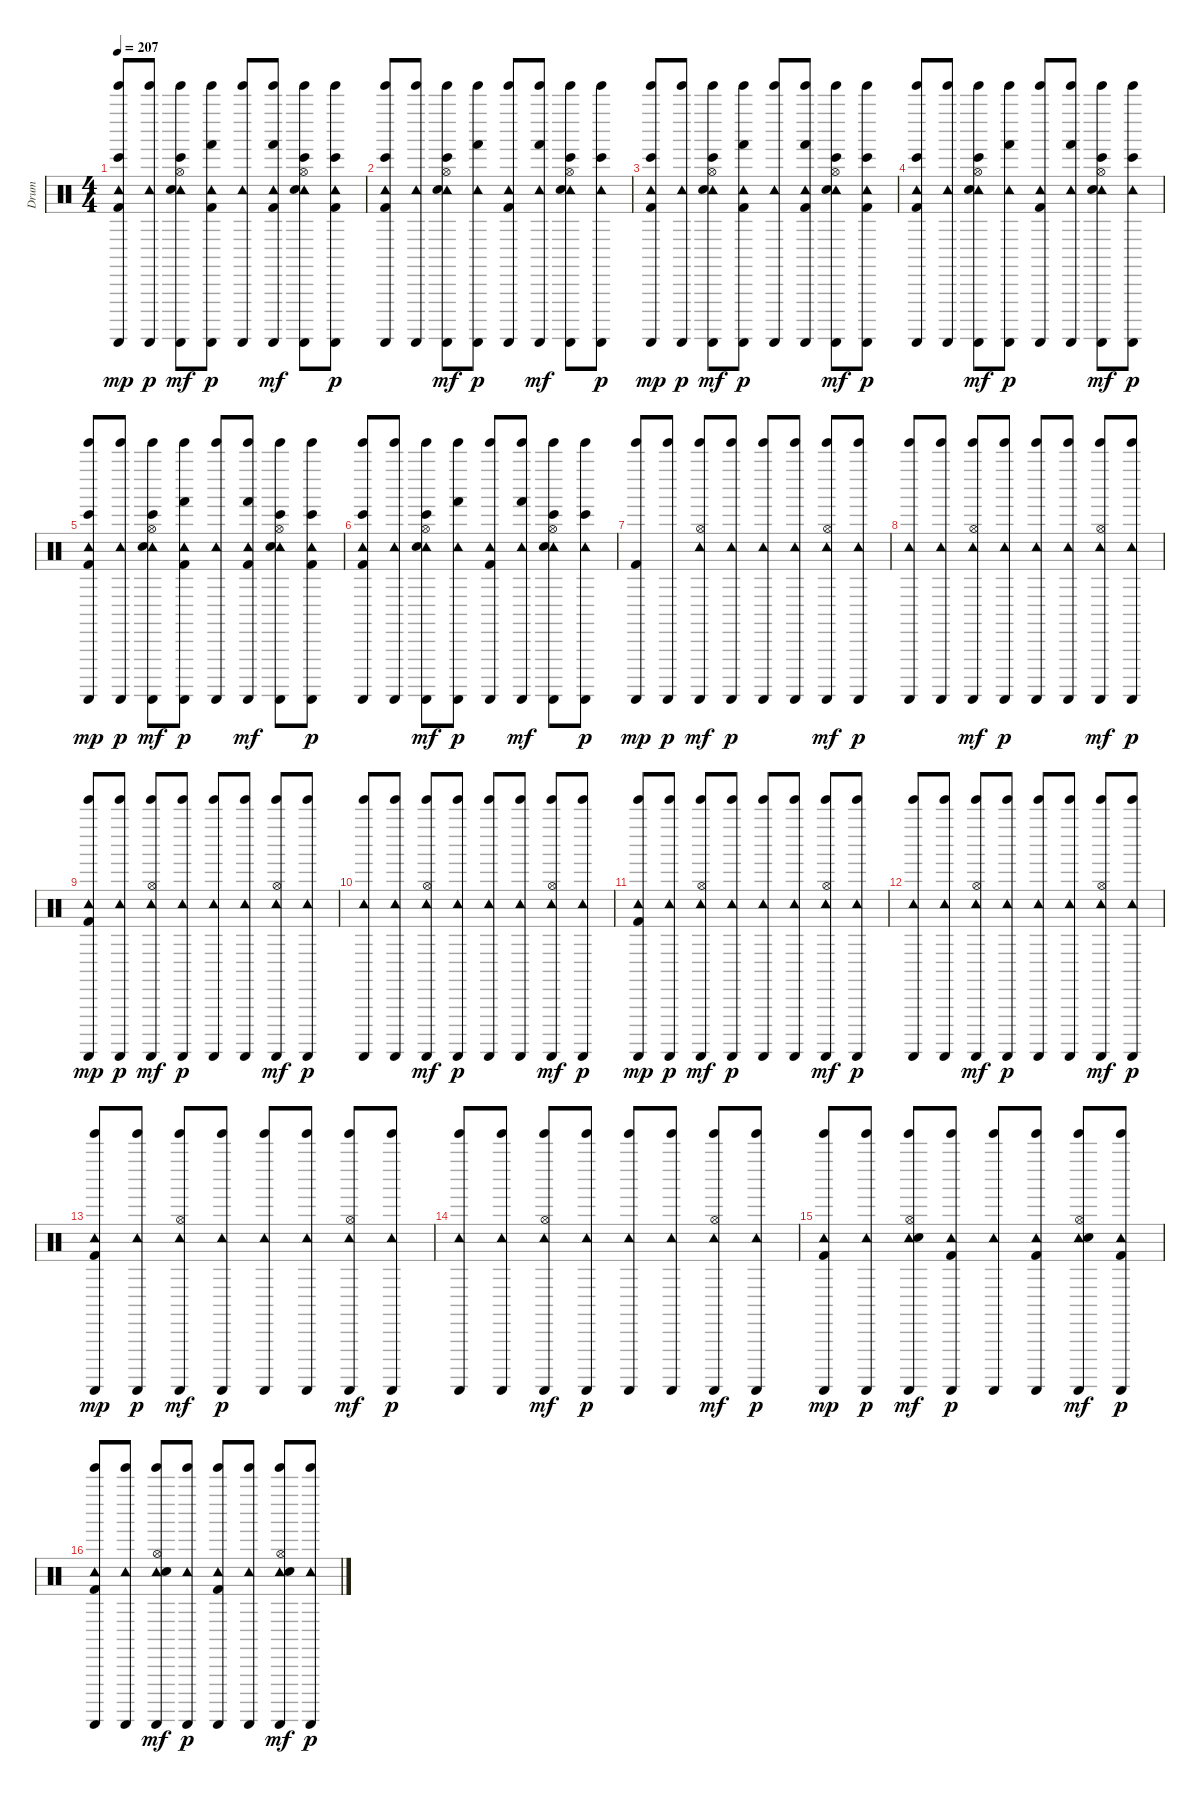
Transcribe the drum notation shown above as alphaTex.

\track ("Drum" "Drum") {instrument percussion}
\staff {score}
\articulation defaults
\ts (4 4)
\tempo 207
\clef neutral
\ks c
("Tambourine (hit)" "Kick (hit) 2" "Tinkle Bell (hit)" "Guiro (scrap-return)" "Bongo High (hit)").8{dy mp} ("Tambourine (hit)" "Tinkle Bell (hit)" "Guiro (scrap-return)").8{dy p} ("Tambourine (hit)" "Hi-Hat (open)" "Snare (hit) 2" "Tinkle Bell (hit)" "Guiro (scrap-return)" "Bongo High (hit)").8{dy mf} ("Tambourine (hit)" "Kick (hit) 2" "Tinkle Bell (hit)" "Guiro (scrap-return)" "Hand (hit)").8{dy p} ("Tambourine (hit)" "Tinkle Bell (hit)" "Guiro (scrap-return)").8 ("Tambourine (hit)" "Kick (hit) 2" "Tinkle Bell (hit)" "Guiro (scrap-return)" "Hand (hit)").8{dy mf} ("Tambourine (hit)" "Hi-Hat (open)" "Snare (hit) 2" "Tinkle Bell (hit)" "Guiro (scrap-return)" "Bongo High (hit)").8 ("Tambourine (hit)" "Kick (hit) 2" "Tinkle Bell (hit)" "Guiro (scrap-return)" "Bongo High (hit)").8{dy p} |
("Tambourine (hit)" "Kick (hit) 2" "Tinkle Bell (hit)" "Guiro (scrap-return)" "Bongo High (hit)").8 ("Tambourine (hit)" "Tinkle Bell (hit)" "Guiro (scrap-return)").8 ("Tambourine (hit)" "Hi-Hat (open)" "Snare (hit) 2" "Tinkle Bell (hit)" "Guiro (scrap-return)" "Bongo High (hit)").8{dy mf} ("Tambourine (hit)" "Tinkle Bell (hit)" "Guiro (scrap-return)" "Hand (hit)").8{dy p} ("Tambourine (hit)" "Kick (hit) 2" "Tinkle Bell (hit)" "Guiro (scrap-return)").8 ("Tambourine (hit)" "Tinkle Bell (hit)" "Guiro (scrap-return)" "Hand (hit)").8{dy mf} ("Tambourine (hit)" "Hi-Hat (open)" "Snare (hit) 2" "Tinkle Bell (hit)" "Guiro (scrap-return)" "Bongo High (hit)").8 ("Tambourine (hit)" "Tinkle Bell (hit)" "Guiro (scrap-return)" "Bongo High (hit)").8{dy p} |
("Tambourine (hit)" "Kick (hit) 2" "Bongo High (hit)" "Tinkle Bell (hit)" "Guiro (scrap-return)").8{dy mp} ("Tambourine (hit)" "Tinkle Bell (hit)" "Guiro (scrap-return)").8{dy p} ("Tambourine (hit)" "Hi-Hat (open)" "Snare (hit) 2" "Bongo High (hit)" "Tinkle Bell (hit)" "Guiro (scrap-return)").8{dy mf} ("Tambourine (hit)" "Kick (hit) 2" "Hand (hit)" "Tinkle Bell (hit)" "Guiro (scrap-return)").8{dy p} ("Tambourine (hit)" "Tinkle Bell (hit)" "Guiro (scrap-return)").8 ("Tambourine (hit)" "Kick (hit) 2" "Hand (hit)" "Tinkle Bell (hit)" "Guiro (scrap-return)").8 ("Tambourine (hit)" "Hi-Hat (open)" "Snare (hit) 2" "Bongo High (hit)" "Tinkle Bell (hit)" "Guiro (scrap-return)").8{dy mf} ("Tambourine (hit)" "Kick (hit) 2" "Bongo High (hit)" "Tinkle Bell (hit)" "Guiro (scrap-return)").8{dy p} |
("Tambourine (hit)" "Kick (hit) 2" "Bongo High (hit)" "Tinkle Bell (hit)" "Guiro (scrap-return)").8 ("Tambourine (hit)" "Tinkle Bell (hit)" "Guiro (scrap-return)").8 ("Tambourine (hit)" "Hi-Hat (open)" "Snare (hit) 2" "Bongo High (hit)" "Tinkle Bell (hit)" "Guiro (scrap-return)").8{dy mf} ("Tambourine (hit)" "Hand (hit)" "Tinkle Bell (hit)" "Guiro (scrap-return)").8{dy p} ("Tambourine (hit)" "Kick (hit) 2" "Tinkle Bell (hit)" "Guiro (scrap-return)").8 ("Tambourine (hit)" "Hand (hit)" "Tinkle Bell (hit)" "Guiro (scrap-return)").8 ("Tambourine (hit)" "Hi-Hat (open)" "Snare (hit) 2" "Bongo High (hit)" "Tinkle Bell (hit)" "Guiro (scrap-return)").8{dy mf} ("Tambourine (hit)" "Bongo High (hit)" "Tinkle Bell (hit)" "Guiro (scrap-return)").8{dy p} |
("Tambourine (hit)" "Kick (hit) 2" "Tinkle Bell (hit)" "Guiro (scrap-return)" "Bongo High (hit)").8{dy mp} ("Tambourine (hit)" "Tinkle Bell (hit)" "Guiro (scrap-return)").8{dy p} ("Tambourine (hit)" "Hi-Hat (open)" "Snare (hit) 2" "Tinkle Bell (hit)" "Guiro (scrap-return)" "Bongo High (hit)").8{dy mf} ("Tambourine (hit)" "Kick (hit) 2" "Tinkle Bell (hit)" "Guiro (scrap-return)" "Hand (hit)").8{dy p} ("Tambourine (hit)" "Tinkle Bell (hit)" "Guiro (scrap-return)").8 ("Tambourine (hit)" "Kick (hit) 2" "Tinkle Bell (hit)" "Guiro (scrap-return)" "Hand (hit)").8{dy mf} ("Tambourine (hit)" "Hi-Hat (open)" "Snare (hit) 2" "Tinkle Bell (hit)" "Guiro (scrap-return)" "Bongo High (hit)").8 ("Tambourine (hit)" "Kick (hit) 2" "Tinkle Bell (hit)" "Guiro (scrap-return)" "Bongo High (hit)").8{dy p} |
("Tambourine (hit)" "Kick (hit) 2" "Tinkle Bell (hit)" "Guiro (scrap-return)" "Bongo High (hit)").8 ("Tambourine (hit)" "Tinkle Bell (hit)" "Guiro (scrap-return)").8 ("Tambourine (hit)" "Hi-Hat (open)" "Snare (hit) 2" "Tinkle Bell (hit)" "Guiro (scrap-return)" "Bongo High (hit)").8{dy mf} ("Tambourine (hit)" "Tinkle Bell (hit)" "Guiro (scrap-return)" "Hand (hit)").8{dy p} ("Tambourine (hit)" "Kick (hit) 2" "Tinkle Bell (hit)" "Guiro (scrap-return)").8 ("Tambourine (hit)" "Tinkle Bell (hit)" "Guiro (scrap-return)" "Hand (hit)").8{dy mf} ("Tambourine (hit)" "Hi-Hat (open)" "Snare (hit) 2" "Tinkle Bell (hit)" "Guiro (scrap-return)" "Bongo High (hit)").8 ("Tambourine (hit)" "Tinkle Bell (hit)" "Guiro (scrap-return)" "Bongo High (hit)").8{dy p} |
("Kick (hit) 2" "Tinkle Bell (hit)" "Guiro (scrap-return)").8{dy mp} ("Tinkle Bell (hit)" "Guiro (scrap-return)").8{dy p} ("Tambourine (hit)" "Hi-Hat (open)" "Tinkle Bell (hit)" "Guiro (scrap-return)").8{dy mf} ("Tambourine (hit)" "Tinkle Bell (hit)" "Guiro (scrap-return)").8{dy p} ("Tambourine (hit)" "Tinkle Bell (hit)" "Guiro (scrap-return)").8 ("Tambourine (hit)" "Tinkle Bell (hit)" "Guiro (scrap-return)").8 ("Tambourine (hit)" "Hi-Hat (open)" "Tinkle Bell (hit)" "Guiro (scrap-return)").8{dy mf} ("Tambourine (hit)" "Tinkle Bell (hit)" "Guiro (scrap-return)").8{dy p} |
("Tambourine (hit)" "Tinkle Bell (hit)" "Guiro (scrap-return)").8 ("Tambourine (hit)" "Tinkle Bell (hit)" "Guiro (scrap-return)").8 ("Tambourine (hit)" "Hi-Hat (open)" "Tinkle Bell (hit)" "Guiro (scrap-return)").8{dy mf} ("Tambourine (hit)" "Tinkle Bell (hit)" "Guiro (scrap-return)").8{dy p} ("Tambourine (hit)" "Tinkle Bell (hit)" "Guiro (scrap-return)").8 ("Tambourine (hit)" "Tinkle Bell (hit)" "Guiro (scrap-return)").8 ("Tambourine (hit)" "Hi-Hat (open)" "Tinkle Bell (hit)" "Guiro (scrap-return)").8{dy mf} ("Tambourine (hit)" "Tinkle Bell (hit)" "Guiro (scrap-return)").8{dy p} |
("Tambourine (hit)" "Kick (hit) 2" "Tinkle Bell (hit)" "Guiro (scrap-return)").8{dy mp} ("Tambourine (hit)" "Tinkle Bell (hit)" "Guiro (scrap-return)").8{dy p} ("Tambourine (hit)" "Hi-Hat (open)" "Tinkle Bell (hit)" "Guiro (scrap-return)").8{dy mf} ("Tambourine (hit)" "Tinkle Bell (hit)" "Guiro (scrap-return)").8{dy p} ("Tambourine (hit)" "Tinkle Bell (hit)" "Guiro (scrap-return)").8 ("Tambourine (hit)" "Tinkle Bell (hit)" "Guiro (scrap-return)").8 ("Tambourine (hit)" "Hi-Hat (open)" "Tinkle Bell (hit)" "Guiro (scrap-return)").8{dy mf} ("Tambourine (hit)" "Tinkle Bell (hit)" "Guiro (scrap-return)").8{dy p} |
("Tambourine (hit)" "Tinkle Bell (hit)" "Guiro (scrap-return)").8 ("Tambourine (hit)" "Tinkle Bell (hit)" "Guiro (scrap-return)").8 ("Tambourine (hit)" "Hi-Hat (open)" "Tinkle Bell (hit)" "Guiro (scrap-return)").8{dy mf} ("Tambourine (hit)" "Tinkle Bell (hit)" "Guiro (scrap-return)").8{dy p} ("Tambourine (hit)" "Tinkle Bell (hit)" "Guiro (scrap-return)").8 ("Tambourine (hit)" "Tinkle Bell (hit)" "Guiro (scrap-return)").8 ("Tambourine (hit)" "Hi-Hat (open)" "Tinkle Bell (hit)" "Guiro (scrap-return)").8{dy mf} ("Tambourine (hit)" "Tinkle Bell (hit)" "Guiro (scrap-return)").8{dy p} |
("Tambourine (hit)" "Kick (hit) 2" "Tinkle Bell (hit)" "Guiro (scrap-return)").8{dy mp} ("Tambourine (hit)" "Tinkle Bell (hit)" "Guiro (scrap-return)").8{dy p} ("Tambourine (hit)" "Hi-Hat (open)" "Tinkle Bell (hit)" "Guiro (scrap-return)").8{dy mf} ("Tambourine (hit)" "Tinkle Bell (hit)" "Guiro (scrap-return)").8{dy p} ("Tambourine (hit)" "Tinkle Bell (hit)" "Guiro (scrap-return)").8 ("Tambourine (hit)" "Tinkle Bell (hit)" "Guiro (scrap-return)").8 ("Tambourine (hit)" "Hi-Hat (open)" "Tinkle Bell (hit)" "Guiro (scrap-return)").8{dy mf} ("Tambourine (hit)" "Tinkle Bell (hit)" "Guiro (scrap-return)").8{dy p} |
("Tambourine (hit)" "Tinkle Bell (hit)" "Guiro (scrap-return)").8 ("Tambourine (hit)" "Tinkle Bell (hit)" "Guiro (scrap-return)").8 ("Tambourine (hit)" "Hi-Hat (open)" "Tinkle Bell (hit)" "Guiro (scrap-return)").8{dy mf} ("Tambourine (hit)" "Tinkle Bell (hit)" "Guiro (scrap-return)").8{dy p} ("Tambourine (hit)" "Tinkle Bell (hit)" "Guiro (scrap-return)").8 ("Tambourine (hit)" "Tinkle Bell (hit)" "Guiro (scrap-return)").8 ("Tambourine (hit)" "Hi-Hat (open)" "Tinkle Bell (hit)" "Guiro (scrap-return)").8{dy mf} ("Tambourine (hit)" "Tinkle Bell (hit)" "Guiro (scrap-return)").8{dy p} |
("Tambourine (hit)" "Kick (hit) 2" "Tinkle Bell (hit)" "Guiro (scrap-return)").8{dy mp} ("Tambourine (hit)" "Tinkle Bell (hit)" "Guiro (scrap-return)").8{dy p} ("Tambourine (hit)" "Hi-Hat (open)" "Tinkle Bell (hit)" "Guiro (scrap-return)").8{dy mf} ("Tambourine (hit)" "Tinkle Bell (hit)" "Guiro (scrap-return)").8{dy p} ("Tambourine (hit)" "Tinkle Bell (hit)" "Guiro (scrap-return)").8 ("Tambourine (hit)" "Tinkle Bell (hit)" "Guiro (scrap-return)").8 ("Tambourine (hit)" "Hi-Hat (open)" "Tinkle Bell (hit)" "Guiro (scrap-return)").8{dy mf} ("Tambourine (hit)" "Tinkle Bell (hit)" "Guiro (scrap-return)").8{dy p} |
("Tambourine (hit)" "Tinkle Bell (hit)" "Guiro (scrap-return)").8 ("Tambourine (hit)" "Tinkle Bell (hit)" "Guiro (scrap-return)").8 ("Tambourine (hit)" "Hi-Hat (open)" "Tinkle Bell (hit)" "Guiro (scrap-return)").8{dy mf} ("Tambourine (hit)" "Tinkle Bell (hit)" "Guiro (scrap-return)").8{dy p} ("Tambourine (hit)" "Tinkle Bell (hit)" "Guiro (scrap-return)").8 ("Tambourine (hit)" "Tinkle Bell (hit)" "Guiro (scrap-return)").8 ("Tambourine (hit)" "Hi-Hat (open)" "Tinkle Bell (hit)" "Guiro (scrap-return)").8{dy mf} ("Tambourine (hit)" "Tinkle Bell (hit)" "Guiro (scrap-return)").8{dy p} |
("Tambourine (hit)" "Kick (hit) 2" "Tinkle Bell (hit)" "Guiro (scrap-return)").8{dy mp} ("Tambourine (hit)" "Tinkle Bell (hit)" "Guiro (scrap-return)").8{dy p} ("Tambourine (hit)" "Hi-Hat (open)" "Snare (hit) 2" "Tinkle Bell (hit)" "Guiro (scrap-return)").8{dy mf} ("Tambourine (hit)" "Kick (hit) 2" "Tinkle Bell (hit)" "Guiro (scrap-return)").8{dy p} ("Tambourine (hit)" "Tinkle Bell (hit)" "Guiro (scrap-return)").8 ("Tambourine (hit)" "Kick (hit) 2" "Tinkle Bell (hit)" "Guiro (scrap-return)").8 ("Tambourine (hit)" "Hi-Hat (open)" "Snare (hit) 2" "Tinkle Bell (hit)" "Guiro (scrap-return)").8{dy mf} ("Tambourine (hit)" "Kick (hit) 2" "Tinkle Bell (hit)" "Guiro (scrap-return)").8{dy p} |
("Tambourine (hit)" "Kick (hit) 2" "Tinkle Bell (hit)" "Guiro (scrap-return)").8 ("Tambourine (hit)" "Tinkle Bell (hit)" "Guiro (scrap-return)").8 ("Tambourine (hit)" "Hi-Hat (open)" "Snare (hit) 2" "Tinkle Bell (hit)" "Guiro (scrap-return)").8{dy mf} ("Tambourine (hit)" "Tinkle Bell (hit)" "Guiro (scrap-return)").8{dy p} ("Tambourine (hit)" "Kick (hit) 2" "Tinkle Bell (hit)" "Guiro (scrap-return)").8 ("Tambourine (hit)" "Tinkle Bell (hit)" "Guiro (scrap-return)").8 ("Tambourine (hit)" "Hi-Hat (open)" "Snare (hit) 2" "Tinkle Bell (hit)" "Guiro (scrap-return)").8{dy mf} ("Tambourine (hit)" "Tinkle Bell (hit)" "Guiro (scrap-return)").8{dy p}
